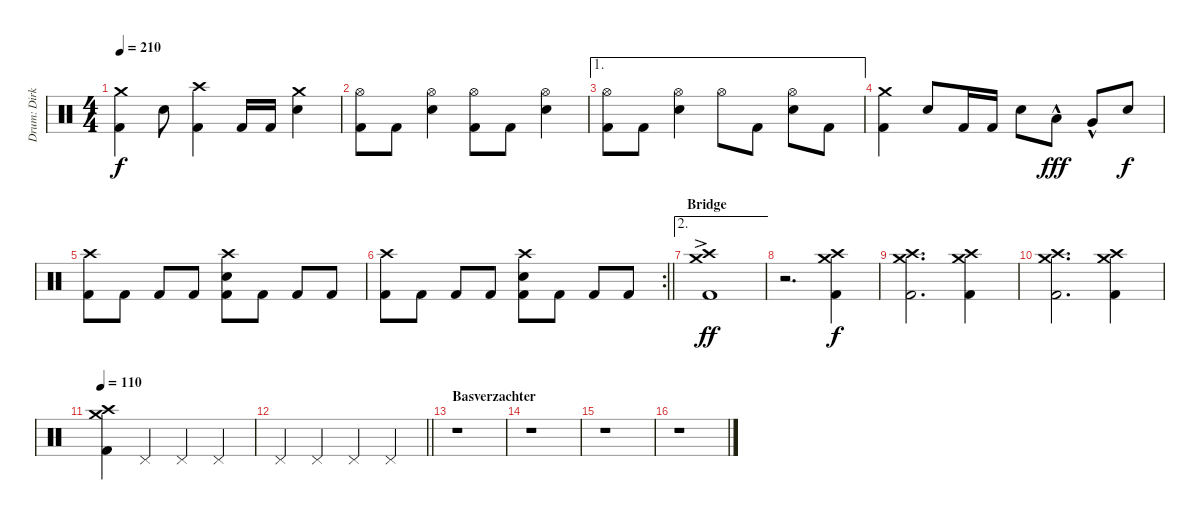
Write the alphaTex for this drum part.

\track ("Drum: Dirk" "Drum: Dirk") {instrument percussion}
\staff {score}
\articulation defaults
\ts (4 4)
\tempo 210
\clef neutral
\ks c
("Crash medium (hit)" "Kick (hit) 2").4{dy f} "Electric Snare (hit)".8 ("Crash high (hit)" "Kick (hit) 2").4 "Kick (hit) 2".16 "Kick (hit) 2".16 ("Crash medium (hit)" "Electric Snare (hit)").4 |
("Hi-Hat (open)" "Kick (hit) 2").8 "Kick (hit) 2".8 ("Hi-Hat (open)" "Electric Snare (hit)").4 ("Hi-Hat (open)" "Kick (hit) 2").8 "Kick (hit) 2".8 ("Hi-Hat (open)" "Electric Snare (hit)").4 |
\ae 1
("Hi-Hat (open)" "Kick (hit) 2").8 "Kick (hit) 2".8 ("Hi-Hat (open)" "Electric Snare (hit)").4 "Hi-Hat (open)".8 "Kick (hit) 2".8 ("Hi-Hat (open)" "Electric Snare (hit)").8 "Kick (hit) 2".8 |
("Crash medium (hit)" "Kick (hit) 2").4 "Electric Snare (hit)".8 "Kick (hit) 2".16 "Kick (hit) 2".16 "Electric Snare (hit)".8 "Low Tom (hit)"{hac}.8{dy fff} "Very Low Tom (hit)"{hac}.8 "Electric Snare (hit)".8{dy f} |
("Crash high (hit)" "Kick (hit) 2").8 "Kick (hit) 2".8 "Kick (hit) 2".8 "Kick (hit) 2".8 ("Crash high (hit)" "Electric Snare (hit)" "Kick (hit) 2").8 "Kick (hit) 2".8 "Kick (hit) 2".8 "Kick (hit) 2".8 |
\rc 2
\barLineRight lightlight
("Crash high (hit)" "Kick (hit) 2").8 "Kick (hit) 2".8 "Kick (hit) 2".8 "Kick (hit) 2".8 ("Crash high (hit)" "Electric Snare (hit)" "Kick (hit) 2").8 "Kick (hit) 2".8 "Kick (hit) 2".8 "Kick (hit) 2".8 |
\ae 2
\section ("" "Bridge")
("Crash medium (hit)"{ac} "Crash high (hit)"{ac} "Kick (hit) 2").1{dy ff} |
r.2{d} ("Crash medium (hit)" "Crash high (hit)" "Kick (hit) 2").4{dy f} |
("Crash medium (hit)" "Crash high (hit)" "Kick (hit) 2").2{d} ("Crash medium (hit)" "Crash high (hit)" "Kick (hit) 2").4 |
("Crash medium (hit)" "Crash high (hit)" "Kick (hit) 2").2{d} ("Crash medium (hit)" "Crash high (hit)" "Kick (hit) 2").4 |
\tempo 110
("Crash medium (hit)" "Crash high (hit)" "Kick (hit) 2").4 "Pedal Hi-Hat (hit)".4 "Pedal Hi-Hat (hit)".4 "Pedal Hi-Hat (hit)".4 |
\barLineRight lightlight "Pedal Hi-Hat (hit)".4 "Pedal Hi-Hat (hit)".4 "Pedal Hi-Hat (hit)".4 "Pedal Hi-Hat (hit)".4
|
\section ("" "Basverzachter")
r.1 |
r.1 |
r.1 |
r.1
